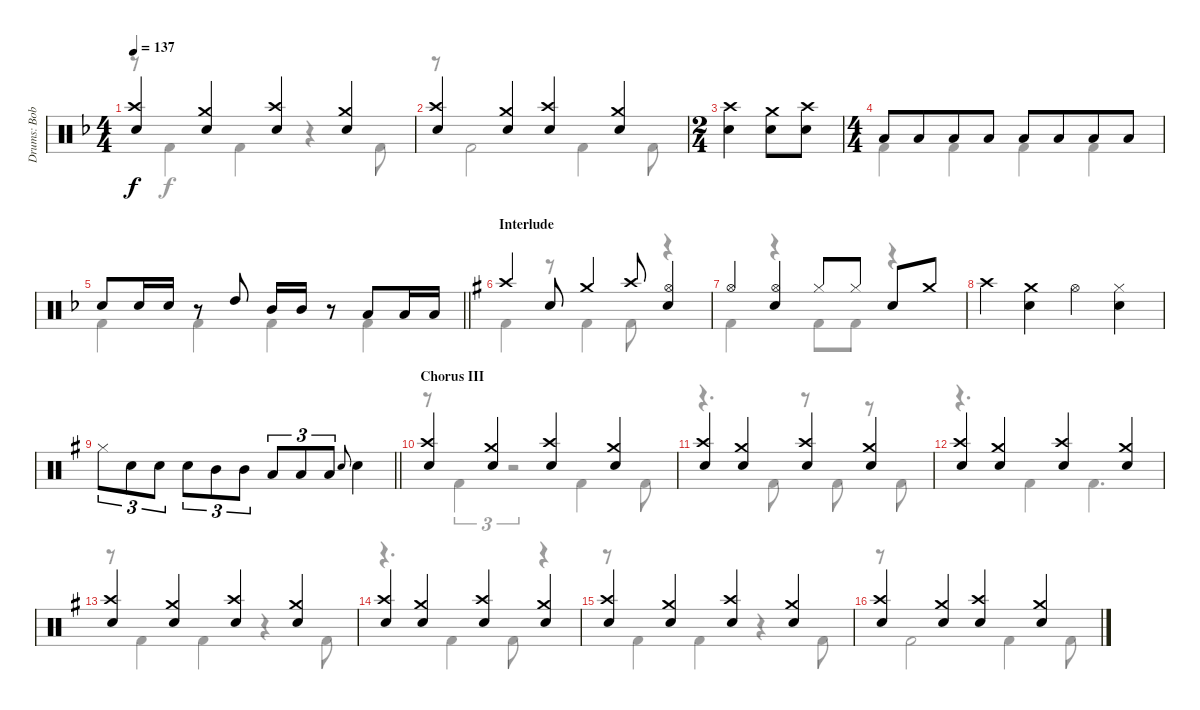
\track ("Drums: Bobby" "Drums: Bob") {instrument percussion}
\staff {score}
\articulation defaults
\voice
\ts (4 4)
\tempo 137
\clef neutral
\ks f
("Crash high (hit)" "Snare (hit) 2").4{dy f} ("Crash medium (hit)" "Snare (hit) 2").4 ("Crash high (hit)" "Snare (hit) 2").4 ("Crash medium (hit)" "Snare (hit) 2").4 |
("Crash high (hit)" "Snare (hit) 2").4 ("Crash medium (hit)" "Snare (hit) 2").4 ("Crash high (hit)" "Snare (hit) 2").4 ("Crash medium (hit)" "Snare (hit) 2").4 |
\ts (2 4)
("Crash high (hit)" "Snare (hit) 2").4 ("Crash medium (hit)" "Snare (hit) 2").8 ("Crash high (hit)" "Snare (hit) 2").8 |
\ts (4 4)
"Low Tom (hit)".8 "Low Tom (hit)".8{beam merge} "Low Tom (hit)".8 "Low Tom (hit)".8 "Low Tom (hit)".8 "Low Tom (hit)".8{beam merge} "Low Tom (hit)".8 "Low Tom (hit)".8 |
\barLineRight lightlight "Snare (hit) 2".8 "Snare (hit) 2".16 "Snare (hit) 2".16
r.8 "High Tom (hit)".8 "Mid Tom (hit)".16 "Mid Tom (hit)".16 r.8 "Low Tom (hit)".8 "Low Tom (hit)".16 "Low Tom (hit)".16 |
\section ("" "Interlude")
\ks g "Crash high (hit)".4 "Snare (hit) 2".8 "Crash medium (hit)".4 "Crash high (hit)".8
("Hi-Hat (open)" "Snare (hit) 2").4 |
"Hi-Hat (open)".4 ("Hi-Hat (open)" "Snare (hit) 2").4 "Hi-Hat (closed)".8 "Hi-Hat (closed)".8 "Snare (hit) 2".8 "Crash medium (hit)".8 |
"Crash high (hit)".4 ("Crash medium (hit)" "Snare (hit) 2").4 "Hi-Hat (open)".4 ("Hi-Hat (closed)" "Snare (hit) 2").4 |
\barLineRight lightlight "Hi-Hat (closed)".8{tu (3 2)} "Snare (hit) 2".8{tu (3 2)} "Snare (hit) 2".8{tu (3 2)} "Snare (hit) 2".8{tu (3 2)} "Mid Tom (hit)".8{tu (3 2)} "Mid Tom (hit)".8{tu (3 2)} "Low Tom (hit)".8{tu (3 2)} "Low Tom (hit)".8{tu (3 2)} "Low Tom (hit)".8{tu (3 2)} "Electric Snare (hit)".8{gr onbeat} "Snare (hit) 2".4
|
\section ("" "Chorus III")
("Crash high (hit)" "Snare (hit) 2").4 ("Crash medium (hit)" "Snare (hit) 2").4 ("Crash high (hit)" "Snare (hit) 2").4 ("Crash medium (hit)" "Snare (hit) 2").4 |
("Crash high (hit)" "Snare (hit) 2").4 ("Crash medium (hit)" "Snare (hit) 2").4 ("Crash high (hit)" "Snare (hit) 2").4 ("Crash medium (hit)" "Snare (hit) 2").4 |
("Crash high (hit)" "Snare (hit) 2").4 ("Crash medium (hit)" "Snare (hit) 2").4 ("Crash high (hit)" "Snare (hit) 2").4 ("Crash medium (hit)" "Snare (hit) 2").4 |
("Crash high (hit)" "Snare (hit) 2").4 ("Crash medium (hit)" "Snare (hit) 2").4 ("Crash high (hit)" "Snare (hit) 2").4 ("Crash medium (hit)" "Snare (hit) 2").4 |
("Crash high (hit)" "Snare (hit) 2").4 ("Crash medium (hit)" "Snare (hit) 2").4 ("Crash high (hit)" "Snare (hit) 2").4 ("Crash medium (hit)" "Snare (hit) 2").4 |
("Crash high (hit)" "Snare (hit) 2").4 ("Crash medium (hit)" "Snare (hit) 2").4 ("Crash high (hit)" "Snare (hit) 2").4 ("Crash medium (hit)" "Snare (hit) 2").4 |
("Crash high (hit)" "Snare (hit) 2").4 ("Crash medium (hit)" "Snare (hit) 2").4 ("Crash high (hit)" "Snare (hit) 2").4 ("Crash medium (hit)" "Snare (hit) 2").4
\voice
\clef neutral
\ottava regular
\simile none
\ks f
r.8{dy f} "Kick (hit) 2".4 "Kick (hit) 2".4 r.4 "Kick (hit) 2".8 |
r.8 "Kick (hit) 2".2 "Kick (hit) 2".4 "Kick (hit) 2".8 |
|
"Kick (hit) 2".4 "Kick (hit) 2".4 "Kick (hit) 2".4 "Kick (hit) 2".4 |
\barLineRight lightlight "Kick (hit) 2".4 "Kick (hit) 2".4 "Kick (hit) 2".4 "Kick (hit) 2".4
|
\ks g "Kick (hit) 2".4
r.8 "Kick (hit) 2".4 "Kick (hit) 2".8 r.4 |
"Kick (hit) 2".4 r.4 "Kick (hit) 2".8 "Kick (hit) 2".8 r.4 |
|
\barLineRight lightlight
|
r.8 "Kick (hit) 2".4{tu (3 2)} r.2{tu (3 2)} "Kick (hit) 2".4 "Kick (hit) 2".8 |
r.4{d} "Kick (hit) 2".8 r.8 "Kick (hit) 2".8 r.8 "Kick (hit) 2".8 |
r.4{d} "Kick (hit) 2".4 "Kick (hit) 2".4{d} |
r.8 "Kick (hit) 2".4 "Kick (hit) 2".4 r.4 "Kick (hit) 2".8 |
r.4{d} "Kick (hit) 2".4 "Kick (hit) 2".8 r.4 |
r.8 "Kick (hit) 2".4 "Kick (hit) 2".4 r.4 "Kick (hit) 2".8 |
r.8 "Kick (hit) 2".2 "Kick (hit) 2".4 "Kick (hit) 2".8
